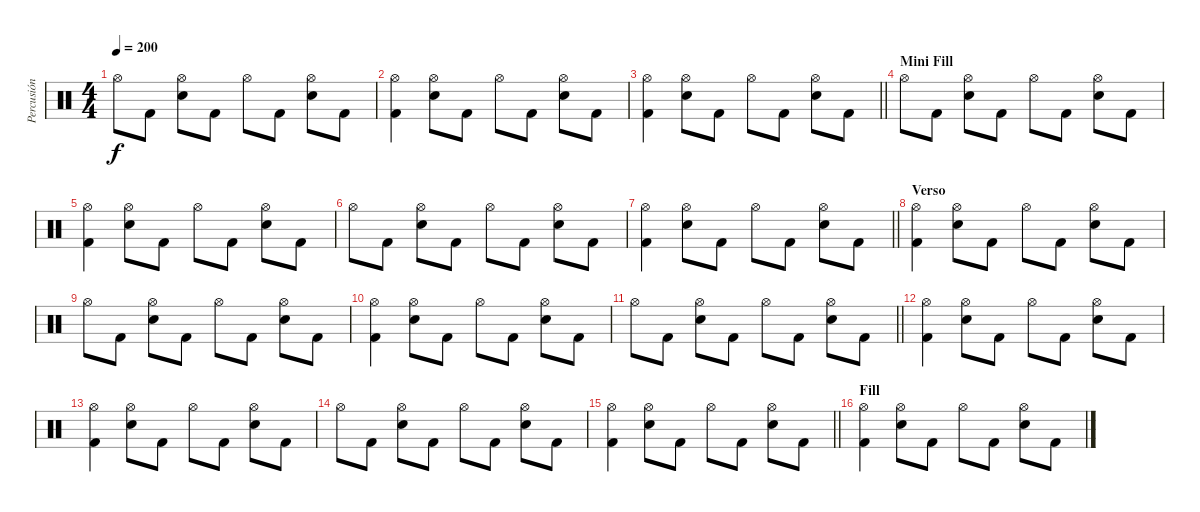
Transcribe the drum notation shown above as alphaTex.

\track ("Percusión" "Percusión") {instrument percussion}
\staff {score}
\articulation defaults
\ts (4 4)
\tempo 200
\clef neutral
\ks c "Hi-Hat (open)".8{dy f} "Kick (hit) 2".8
("Hi-Hat (open)" "Electric Snare (hit)").8 "Kick (hit) 2".8 "Hi-Hat (open)".8 "Kick (hit) 2".8 ("Hi-Hat (open)" "Electric Snare (hit)").8 "Kick (hit) 2".8 |
("Hi-Hat (open)" "Kick (hit) 2").4 ("Hi-Hat (open)" "Electric Snare (hit)").8 "Kick (hit) 2".8 "Hi-Hat (open)".8 "Kick (hit) 2".8 ("Hi-Hat (open)" "Electric Snare (hit)").8 "Kick (hit) 2".8 |
\barLineRight lightlight
("Hi-Hat (open)" "Kick (hit) 2").4 ("Hi-Hat (open)" "Electric Snare (hit)").8 "Kick (hit) 2".8 "Hi-Hat (open)".8 "Kick (hit) 2".8 ("Hi-Hat (open)" "Electric Snare (hit)").8 "Kick (hit) 2".8 |
\section ("" "Mini Fill")
"Hi-Hat (open)".8 "Kick (hit) 2".8 ("Hi-Hat (open)" "Electric Snare (hit)").8 "Kick (hit) 2".8 "Hi-Hat (open)".8 "Kick (hit) 2".8 ("Hi-Hat (open)" "Electric Snare (hit)").8 "Kick (hit) 2".8 |
("Hi-Hat (open)" "Kick (hit) 2").4 ("Hi-Hat (open)" "Electric Snare (hit)").8 "Kick (hit) 2".8 "Hi-Hat (open)".8 "Kick (hit) 2".8 ("Hi-Hat (open)" "Electric Snare (hit)").8 "Kick (hit) 2".8 |
"Hi-Hat (open)".8 "Kick (hit) 2".8 ("Hi-Hat (open)" "Electric Snare (hit)").8 "Kick (hit) 2".8 "Hi-Hat (open)".8 "Kick (hit) 2".8 ("Hi-Hat (open)" "Electric Snare (hit)").8 "Kick (hit) 2".8 |
\barLineRight lightlight
("Hi-Hat (open)" "Kick (hit) 2").4 ("Hi-Hat (open)" "Electric Snare (hit)").8 "Kick (hit) 2".8 "Hi-Hat (open)".8 "Kick (hit) 2".8 ("Hi-Hat (open)" "Electric Snare (hit)").8 "Kick (hit) 2".8 |
\section ("" "Verso")
("Hi-Hat (open)" "Kick (hit) 2").4 ("Hi-Hat (open)" "Electric Snare (hit)").8 "Kick (hit) 2".8 "Hi-Hat (open)".8 "Kick (hit) 2".8 ("Hi-Hat (open)" "Electric Snare (hit)").8 "Kick (hit) 2".8 |
"Hi-Hat (open)".8 "Kick (hit) 2".8 ("Hi-Hat (open)" "Electric Snare (hit)").8 "Kick (hit) 2".8 "Hi-Hat (open)".8 "Kick (hit) 2".8 ("Hi-Hat (open)" "Electric Snare (hit)").8 "Kick (hit) 2".8 |
("Hi-Hat (open)" "Kick (hit) 2").4 ("Hi-Hat (open)" "Electric Snare (hit)").8 "Kick (hit) 2".8 "Hi-Hat (open)".8 "Kick (hit) 2".8 ("Hi-Hat (open)" "Electric Snare (hit)").8 "Kick (hit) 2".8 |
\barLineRight lightlight "Hi-Hat (open)".8 "Kick (hit) 2".8
("Hi-Hat (open)" "Electric Snare (hit)").8 "Kick (hit) 2".8 "Hi-Hat (open)".8 "Kick (hit) 2".8 ("Hi-Hat (open)" "Electric Snare (hit)").8 "Kick (hit) 2".8 |
\section ("" "")
("Hi-Hat (open)" "Kick (hit) 2").4 ("Hi-Hat (open)" "Electric Snare (hit)").8 "Kick (hit) 2".8 "Hi-Hat (open)".8 "Kick (hit) 2".8 ("Hi-Hat (open)" "Electric Snare (hit)").8 "Kick (hit) 2".8 |
("Hi-Hat (open)" "Kick (hit) 2").4 ("Hi-Hat (open)" "Electric Snare (hit)").8 "Kick (hit) 2".8 "Hi-Hat (open)".8 "Kick (hit) 2".8 ("Hi-Hat (open)" "Electric Snare (hit)").8 "Kick (hit) 2".8 |
"Hi-Hat (open)".8 "Kick (hit) 2".8 ("Hi-Hat (open)" "Electric Snare (hit)").8 "Kick (hit) 2".8 "Hi-Hat (open)".8 "Kick (hit) 2".8 ("Hi-Hat (open)" "Electric Snare (hit)").8 "Kick (hit) 2".8 |
\barLineRight lightlight
("Hi-Hat (open)" "Kick (hit) 2").4 ("Hi-Hat (open)" "Electric Snare (hit)").8 "Kick (hit) 2".8 "Hi-Hat (open)".8 "Kick (hit) 2".8 ("Hi-Hat (open)" "Electric Snare (hit)").8 "Kick (hit) 2".8 |
\section ("" "Fill")
("Hi-Hat (open)" "Kick (hit) 2").4 ("Hi-Hat (open)" "Electric Snare (hit)").8 "Kick (hit) 2".8 "Hi-Hat (open)".8 "Kick (hit) 2".8 ("Hi-Hat (open)" "Electric Snare (hit)").8 "Kick (hit) 2".8
